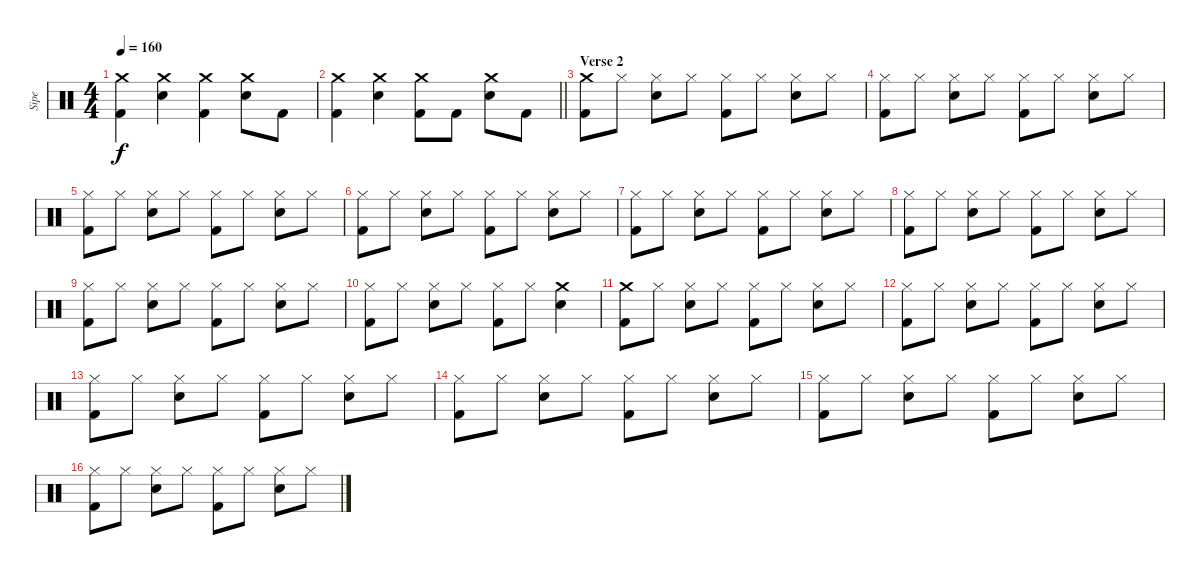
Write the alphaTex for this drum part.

\track ("Sipe" "Sipe") {instrument percussion}
\staff {score}
\articulation defaults
\ts (4 4)
\tempo 160
\clef neutral
\ks c
("Crash medium (hit)" "Kick (hit) 2").4{dy f} ("Crash medium (hit)" "Snare (hit) 2").4 ("Crash medium (hit)" "Kick (hit) 2").4 ("Crash medium (hit)" "Snare (hit) 2").8 "Kick (hit) 2".8 |
\barLineRight lightlight
("Crash medium (hit)" "Kick (hit) 2").4 ("Crash medium (hit)" "Snare (hit) 2").4 ("Crash medium (hit)" "Kick (hit) 2").8 "Kick (hit) 2".8 ("Crash medium (hit)" "Snare (hit) 2").8 "Kick (hit) 2".8 |
\section ("" "Verse 2")
("Crash medium (hit)" "Kick (hit) 2").8 "Hi-Hat (closed)".8 ("Hi-Hat (closed)" "Snare (hit) 2").8 "Hi-Hat (closed)".8 ("Hi-Hat (closed)" "Kick (hit) 2").8 "Hi-Hat (closed)".8 ("Hi-Hat (closed)" "Snare (hit) 2").8 "Hi-Hat (closed)".8 |
("Hi-Hat (closed)" "Kick (hit) 2").8 "Hi-Hat (closed)".8 ("Hi-Hat (closed)" "Snare (hit) 2").8 "Hi-Hat (closed)".8 ("Hi-Hat (closed)" "Kick (hit) 2").8 "Hi-Hat (closed)".8 ("Hi-Hat (closed)" "Snare (hit) 2").8 "Hi-Hat (closed)".8 |
("Hi-Hat (closed)" "Kick (hit) 2").8 "Hi-Hat (closed)".8 ("Hi-Hat (closed)" "Snare (hit) 2").8 "Hi-Hat (closed)".8 ("Hi-Hat (closed)" "Kick (hit) 2").8 "Hi-Hat (closed)".8 ("Hi-Hat (closed)" "Snare (hit) 2").8 "Hi-Hat (closed)".8 |
("Hi-Hat (closed)" "Kick (hit) 2").8 "Hi-Hat (closed)".8 ("Hi-Hat (closed)" "Snare (hit) 2").8 "Hi-Hat (closed)".8 ("Hi-Hat (closed)" "Kick (hit) 2").8 "Hi-Hat (closed)".8 ("Hi-Hat (closed)" "Snare (hit) 2").8 "Hi-Hat (closed)".8 |
("Hi-Hat (closed)" "Kick (hit) 2").8 "Hi-Hat (closed)".8 ("Hi-Hat (closed)" "Snare (hit) 2").8 "Hi-Hat (closed)".8 ("Hi-Hat (closed)" "Kick (hit) 2").8 "Hi-Hat (closed)".8 ("Hi-Hat (closed)" "Snare (hit) 2").8 "Hi-Hat (closed)".8 |
("Hi-Hat (closed)" "Kick (hit) 2").8 "Hi-Hat (closed)".8 ("Hi-Hat (closed)" "Snare (hit) 2").8 "Hi-Hat (closed)".8 ("Hi-Hat (closed)" "Kick (hit) 2").8 "Hi-Hat (closed)".8 ("Hi-Hat (closed)" "Snare (hit) 2").8 "Hi-Hat (closed)".8 |
("Hi-Hat (closed)" "Kick (hit) 2").8 "Hi-Hat (closed)".8 ("Hi-Hat (closed)" "Snare (hit) 2").8 "Hi-Hat (closed)".8 ("Hi-Hat (closed)" "Kick (hit) 2").8 "Hi-Hat (closed)".8 ("Hi-Hat (closed)" "Snare (hit) 2").8 "Hi-Hat (closed)".8 |
("Hi-Hat (closed)" "Kick (hit) 2").8 "Hi-Hat (closed)".8 ("Hi-Hat (closed)" "Snare (hit) 2").8 "Hi-Hat (closed)".8 ("Hi-Hat (closed)" "Kick (hit) 2").8 "Hi-Hat (closed)".8 ("Crash medium (hit)" "Snare (hit) 2").4 |
("Crash medium (hit)" "Kick (hit) 2").8 "Hi-Hat (closed)".8 ("Hi-Hat (closed)" "Snare (hit) 2").8 "Hi-Hat (closed)".8 ("Hi-Hat (closed)" "Kick (hit) 2").8 "Hi-Hat (closed)".8 ("Hi-Hat (closed)" "Snare (hit) 2").8 "Hi-Hat (closed)".8 |
("Hi-Hat (closed)" "Kick (hit) 2").8 "Hi-Hat (closed)".8 ("Hi-Hat (closed)" "Snare (hit) 2").8 "Hi-Hat (closed)".8 ("Hi-Hat (closed)" "Kick (hit) 2").8 "Hi-Hat (closed)".8 ("Hi-Hat (closed)" "Snare (hit) 2").8 "Hi-Hat (closed)".8 |
("Hi-Hat (closed)" "Kick (hit) 2").8 "Hi-Hat (closed)".8 ("Hi-Hat (closed)" "Snare (hit) 2").8 "Hi-Hat (closed)".8 ("Hi-Hat (closed)" "Kick (hit) 2").8 "Hi-Hat (closed)".8 ("Hi-Hat (closed)" "Snare (hit) 2").8 "Hi-Hat (closed)".8 |
("Hi-Hat (closed)" "Kick (hit) 2").8 "Hi-Hat (closed)".8 ("Hi-Hat (closed)" "Snare (hit) 2").8 "Hi-Hat (closed)".8 ("Hi-Hat (closed)" "Kick (hit) 2").8 "Hi-Hat (closed)".8 ("Hi-Hat (closed)" "Snare (hit) 2").8 "Hi-Hat (closed)".8 |
("Hi-Hat (closed)" "Kick (hit) 2").8 "Hi-Hat (closed)".8 ("Hi-Hat (closed)" "Snare (hit) 2").8 "Hi-Hat (closed)".8 ("Hi-Hat (closed)" "Kick (hit) 2").8 "Hi-Hat (closed)".8 ("Hi-Hat (closed)" "Snare (hit) 2").8 "Hi-Hat (closed)".8 |
("Hi-Hat (closed)" "Kick (hit) 2").8 "Hi-Hat (closed)".8 ("Hi-Hat (closed)" "Snare (hit) 2").8 "Hi-Hat (closed)".8 ("Hi-Hat (closed)" "Kick (hit) 2").8 "Hi-Hat (closed)".8 ("Hi-Hat (closed)" "Snare (hit) 2").8 "Hi-Hat (closed)".8
